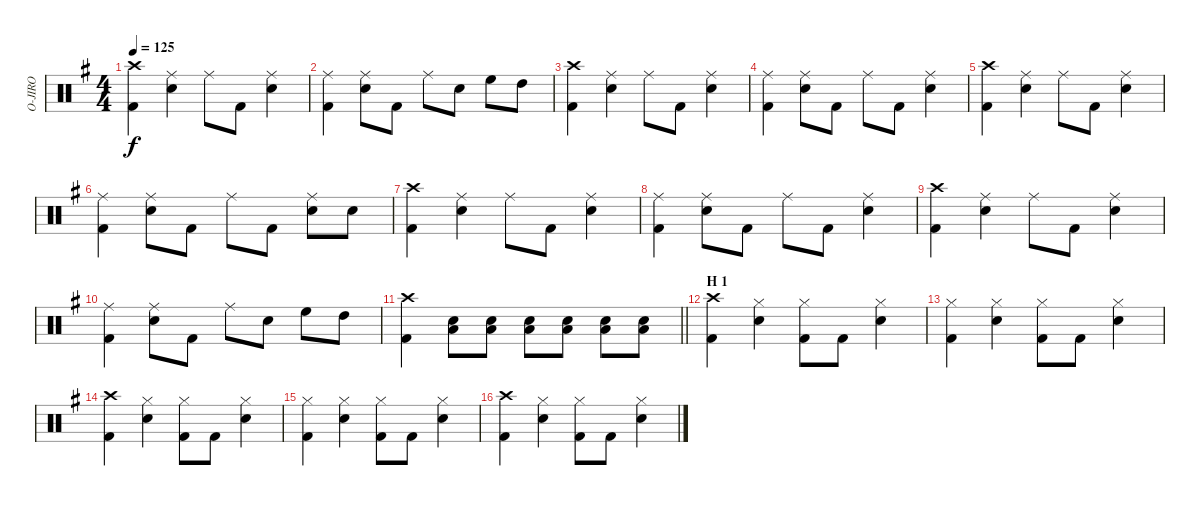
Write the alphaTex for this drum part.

\track ("O-JIRO" "O-JIRO") {instrument percussion}
\staff {score}
\articulation defaults
\ts (4 4)
\tempo 125
\clef neutral
\ks g
("Crash high (hit)" "Kick (hit) 2").4{dy f} ("Ride (middle)" "Snare (hit) 2").4 "Ride (middle)".8 "Kick (hit) 2".8 ("Ride (middle)" "Snare (hit) 2").4 |
("Ride (middle)" "Kick (hit) 2").4 ("Ride (middle)" "Snare (hit) 2").8 "Kick (hit) 2".8 "Ride (middle)".8 "Snare (hit) 2".8 "High Floor Tom (hit)".8 "High Tom (hit)".8 |
("Crash high (hit)" "Kick (hit) 2").4 ("Ride (middle)" "Snare (hit) 2").4 "Ride (middle)".8 "Kick (hit) 2".8 ("Ride (middle)" "Snare (hit) 2").4 |
("Ride (middle)" "Kick (hit) 2").4 ("Ride (middle)" "Snare (hit) 2").8 "Kick (hit) 2".8 "Ride (middle)".8 "Kick (hit) 2".8 ("Ride (middle)" "Snare (hit) 2").4 |
("Crash high (hit)" "Kick (hit) 2").4 ("Ride (middle)" "Snare (hit) 2").4 "Ride (middle)".8 "Kick (hit) 2".8 ("Ride (middle)" "Snare (hit) 2").4 |
("Ride (middle)" "Kick (hit) 2").4 ("Ride (middle)" "Snare (hit) 2").8 "Kick (hit) 2".8 "Ride (middle)".8 "Kick (hit) 2".8 ("Ride (middle)" "Snare (hit) 2").8 "Snare (hit) 2".8 |
("Crash high (hit)" "Kick (hit) 2").4 ("Ride (middle)" "Snare (hit) 2").4 "Ride (middle)".8 "Kick (hit) 2".8 ("Ride (middle)" "Snare (hit) 2").4 |
("Ride (middle)" "Kick (hit) 2").4 ("Ride (middle)" "Snare (hit) 2").8 "Kick (hit) 2".8 "Ride (middle)".8 "Kick (hit) 2".8 ("Ride (middle)" "Snare (hit) 2").4 |
("Crash high (hit)" "Kick (hit) 2").4 ("Ride (middle)" "Snare (hit) 2").4 "Ride (middle)".8 "Kick (hit) 2".8 ("Ride (middle)" "Snare (hit) 2").4 |
("Ride (middle)" "Kick (hit) 2").4 ("Ride (middle)" "Snare (hit) 2").8 "Kick (hit) 2".8 "Ride (middle)".8 "Snare (hit) 2".8 "High Floor Tom (hit)".8 "High Tom (hit)".8 |
\barLineRight lightlight
("Crash high (hit)" "Kick (hit) 2").4 ("Snare (hit) 2" "Low Tom (hit)").8 ("Snare (hit) 2" "Low Tom (hit)").8 ("Snare (hit) 2" "Low Tom (hit)").8 ("Snare (hit) 2" "Low Tom (hit)").8 ("Snare (hit) 2" "Low Tom (hit)").8 ("Snare (hit) 2" "Low Tom (hit)").8 |
\section ("" "H 1")
("Crash high (hit)" "Kick (hit) 2").4 ("Hi-Hat (closed)" "Snare (hit) 2").4 ("Hi-Hat (closed)" "Kick (hit) 2").8 "Kick (hit) 2".8 ("Hi-Hat (closed)" "Snare (hit) 2").4 |
("Hi-Hat (closed)" "Kick (hit) 2").4 ("Hi-Hat (closed)" "Snare (hit) 2").4 ("Hi-Hat (closed)" "Kick (hit) 2").8 "Kick (hit) 2".8 ("Hi-Hat (closed)" "Snare (hit) 2").4 |
("Crash high (hit)" "Kick (hit) 2").4 ("Hi-Hat (closed)" "Snare (hit) 2").4 ("Hi-Hat (closed)" "Kick (hit) 2").8 "Kick (hit) 2".8 ("Hi-Hat (closed)" "Snare (hit) 2").4 |
("Hi-Hat (closed)" "Kick (hit) 2").4 ("Hi-Hat (closed)" "Snare (hit) 2").4 ("Hi-Hat (closed)" "Kick (hit) 2").8 "Kick (hit) 2".8 ("Hi-Hat (closed)" "Snare (hit) 2").4 |
("Crash high (hit)" "Kick (hit) 2").4 ("Hi-Hat (closed)" "Snare (hit) 2").4 ("Hi-Hat (closed)" "Kick (hit) 2").8 "Kick (hit) 2".8 ("Hi-Hat (closed)" "Snare (hit) 2").4
